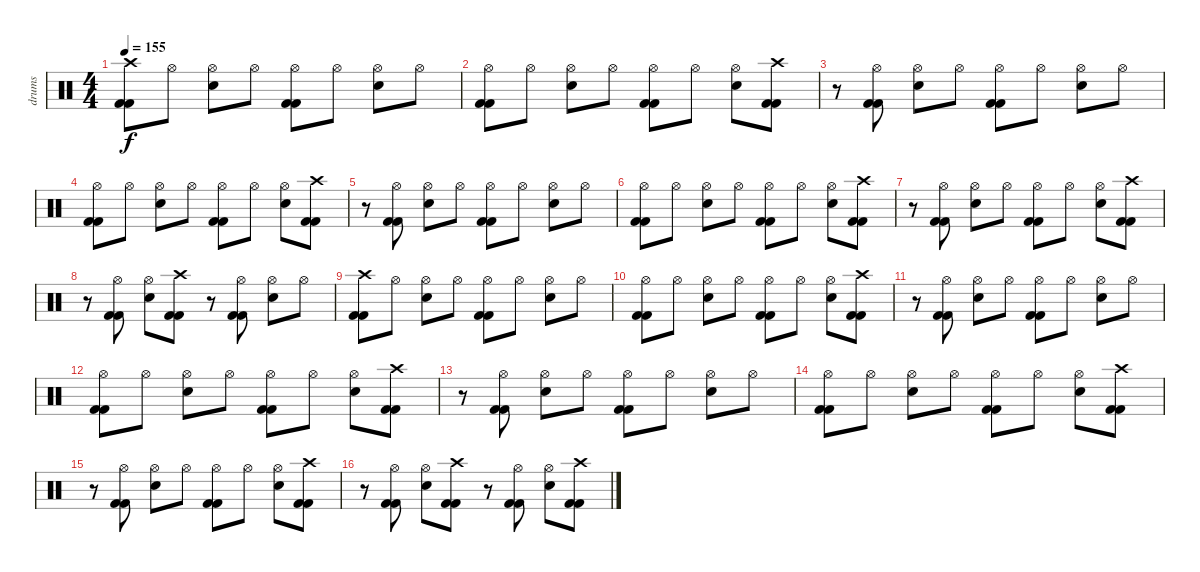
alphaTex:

\track ("drums" "drums") {instrument percussion}
\staff {score}
\articulation defaults
\ts (4 4)
\tempo 155
\clef neutral
\ks c
("Crash high (hit)" "Kick (hit) 2" "Kick (hit) 2").8{dy f} "Hi-Hat (open)".8 ("Hi-Hat (open)" "Electric Snare (hit)").8 "Hi-Hat (open)".8 ("Hi-Hat (open)" "Kick (hit) 2" "Kick (hit) 2").8 "Hi-Hat (open)".8 ("Hi-Hat (open)" "Electric Snare (hit)").8 "Hi-Hat (open)".8 |
("Hi-Hat (open)" "Kick (hit) 2" "Kick (hit) 2").8 "Hi-Hat (open)".8 ("Hi-Hat (open)" "Electric Snare (hit)").8 "Hi-Hat (open)".8 ("Hi-Hat (open)" "Kick (hit) 2" "Kick (hit) 2").8 "Hi-Hat (open)".8 ("Hi-Hat (open)" "Electric Snare (hit)").8 ("Crash high (hit)" "Kick (hit) 2" "Kick (hit) 2").8 |
r.8 ("Hi-Hat (open)" "Kick (hit) 2" "Kick (hit) 2").8 ("Hi-Hat (open)" "Electric Snare (hit)").8 "Hi-Hat (open)".8 ("Hi-Hat (open)" "Kick (hit) 2" "Kick (hit) 2").8 "Hi-Hat (open)".8 ("Hi-Hat (open)" "Electric Snare (hit)").8 "Hi-Hat (open)".8 |
("Hi-Hat (open)" "Kick (hit) 2" "Kick (hit) 2").8 "Hi-Hat (open)".8 ("Hi-Hat (open)" "Electric Snare (hit)").8 "Hi-Hat (open)".8 ("Hi-Hat (open)" "Kick (hit) 2" "Kick (hit) 2").8 "Hi-Hat (open)".8 ("Hi-Hat (open)" "Electric Snare (hit)").8 ("Crash high (hit)" "Kick (hit) 2" "Kick (hit) 2").8 |
r.8 ("Hi-Hat (open)" "Kick (hit) 2" "Kick (hit) 2").8 ("Hi-Hat (open)" "Electric Snare (hit)").8 "Hi-Hat (open)".8 ("Hi-Hat (open)" "Kick (hit) 2" "Kick (hit) 2").8 "Hi-Hat (open)".8 ("Hi-Hat (open)" "Electric Snare (hit)").8 "Hi-Hat (open)".8 |
("Hi-Hat (open)" "Kick (hit) 2" "Kick (hit) 2").8 "Hi-Hat (open)".8 ("Hi-Hat (open)" "Electric Snare (hit)").8 "Hi-Hat (open)".8 ("Hi-Hat (open)" "Kick (hit) 2" "Kick (hit) 2").8 "Hi-Hat (open)".8 ("Hi-Hat (open)" "Electric Snare (hit)").8 ("Crash high (hit)" "Kick (hit) 2" "Kick (hit) 2").8 |
r.8 ("Hi-Hat (open)" "Kick (hit) 2" "Kick (hit) 2").8 ("Hi-Hat (open)" "Electric Snare (hit)").8 "Hi-Hat (open)".8 ("Hi-Hat (open)" "Kick (hit) 2" "Kick (hit) 2").8 "Hi-Hat (open)".8 ("Hi-Hat (open)" "Electric Snare (hit)").8 ("Crash high (hit)" "Kick (hit) 2" "Kick (hit) 2").8 |
r.8 ("Hi-Hat (open)" "Kick (hit) 2" "Kick (hit) 2").8 ("Hi-Hat (open)" "Electric Snare (hit)").8 ("Crash high (hit)" "Kick (hit) 2" "Kick (hit) 2").8 r.8 ("Hi-Hat (open)" "Kick (hit) 2" "Kick (hit) 2").8 ("Hi-Hat (open)" "Electric Snare (hit)").8 "Hi-Hat (open)".8 |
("Crash high (hit)" "Kick (hit) 2" "Kick (hit) 2").8 "Hi-Hat (open)".8 ("Hi-Hat (open)" "Electric Snare (hit)").8 "Hi-Hat (open)".8 ("Hi-Hat (open)" "Kick (hit) 2" "Kick (hit) 2").8 "Hi-Hat (open)".8 ("Hi-Hat (open)" "Electric Snare (hit)").8 "Hi-Hat (open)".8 |
("Hi-Hat (open)" "Kick (hit) 2" "Kick (hit) 2").8 "Hi-Hat (open)".8 ("Hi-Hat (open)" "Electric Snare (hit)").8 "Hi-Hat (open)".8 ("Hi-Hat (open)" "Kick (hit) 2" "Kick (hit) 2").8 "Hi-Hat (open)".8 ("Hi-Hat (open)" "Electric Snare (hit)").8 ("Crash high (hit)" "Kick (hit) 2" "Kick (hit) 2").8 |
r.8 ("Hi-Hat (open)" "Kick (hit) 2" "Kick (hit) 2").8 ("Hi-Hat (open)" "Electric Snare (hit)").8 "Hi-Hat (open)".8 ("Hi-Hat (open)" "Kick (hit) 2" "Kick (hit) 2").8 "Hi-Hat (open)".8 ("Hi-Hat (open)" "Electric Snare (hit)").8 "Hi-Hat (open)".8 |
("Hi-Hat (open)" "Kick (hit) 2" "Kick (hit) 2").8 "Hi-Hat (open)".8 ("Hi-Hat (open)" "Electric Snare (hit)").8 "Hi-Hat (open)".8 ("Hi-Hat (open)" "Kick (hit) 2" "Kick (hit) 2").8 "Hi-Hat (open)".8 ("Hi-Hat (open)" "Electric Snare (hit)").8 ("Crash high (hit)" "Kick (hit) 2" "Kick (hit) 2").8 |
r.8 ("Hi-Hat (open)" "Kick (hit) 2" "Kick (hit) 2").8 ("Hi-Hat (open)" "Electric Snare (hit)").8 "Hi-Hat (open)".8 ("Hi-Hat (open)" "Kick (hit) 2" "Kick (hit) 2").8 "Hi-Hat (open)".8 ("Hi-Hat (open)" "Electric Snare (hit)").8 "Hi-Hat (open)".8 |
("Hi-Hat (open)" "Kick (hit) 2" "Kick (hit) 2").8 "Hi-Hat (open)".8 ("Hi-Hat (open)" "Electric Snare (hit)").8 "Hi-Hat (open)".8 ("Hi-Hat (open)" "Kick (hit) 2" "Kick (hit) 2").8 "Hi-Hat (open)".8 ("Hi-Hat (open)" "Electric Snare (hit)").8 ("Crash high (hit)" "Kick (hit) 2" "Kick (hit) 2").8 |
r.8 ("Hi-Hat (open)" "Kick (hit) 2" "Kick (hit) 2").8 ("Hi-Hat (open)" "Electric Snare (hit)").8 "Hi-Hat (open)".8 ("Hi-Hat (open)" "Kick (hit) 2" "Kick (hit) 2").8 "Hi-Hat (open)".8 ("Hi-Hat (open)" "Electric Snare (hit)").8 ("Crash high (hit)" "Kick (hit) 2" "Kick (hit) 2").8 |
r.8 ("Hi-Hat (open)" "Kick (hit) 2" "Kick (hit) 2").8 ("Hi-Hat (open)" "Electric Snare (hit)").8 ("Crash high (hit)" "Kick (hit) 2" "Kick (hit) 2").8 r.8 ("Hi-Hat (open)" "Kick (hit) 2" "Kick (hit) 2").8 ("Hi-Hat (open)" "Electric Snare (hit)").8 ("Crash high (hit)" "Kick (hit) 2" "Kick (hit) 2").8
